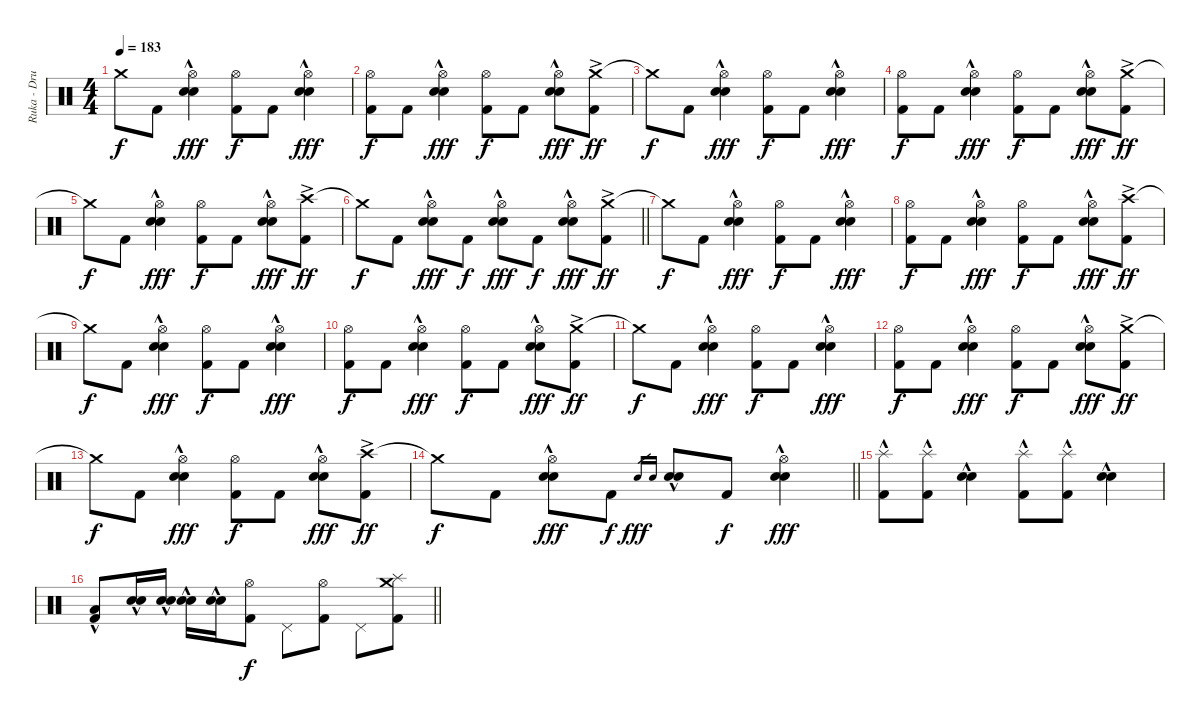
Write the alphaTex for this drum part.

\track ("Ruka - Drums" "Ruka - Dru") {instrument percussion}
\staff {score}
\articulation defaults
\ts (4 4)
\tempo 183
\clef neutral
\ks c "Crash medium (hit)"{t}.8{dy f} "Kick (hit) 2".8
("Hi-Hat (open)" "Electric Snare (hit)"{hac} "Snare (hit) 2"{hac}).4{dy fff} ("Hi-Hat (open)" "Kick (hit) 2").8{dy f} "Kick (hit) 2".8 ("Hi-Hat (open)" "Electric Snare (hit)"{hac} "Snare (hit) 2"{hac}).4{dy fff} |
("Hi-Hat (open)" "Kick (hit) 2").8{dy f} "Kick (hit) 2".8 ("Hi-Hat (open)" "Electric Snare (hit)"{hac} "Snare (hit) 2"{hac}).4{dy fff} ("Hi-Hat (open)" "Kick (hit) 2").8{dy f} "Kick (hit) 2".8 ("Hi-Hat (open)" "Electric Snare (hit)"{hac} "Snare (hit) 2"{hac}).8{dy fff} ("Crash medium (hit)"{ac} "Kick (hit) 2").8{dy ff} |
"Crash medium (hit)"{t}.8{dy f} "Kick (hit) 2".8 ("Hi-Hat (open)" "Electric Snare (hit)"{hac} "Snare (hit) 2"{hac}).4{dy fff} ("Hi-Hat (open)" "Kick (hit) 2").8{dy f} "Kick (hit) 2".8 ("Hi-Hat (open)" "Electric Snare (hit)"{hac} "Snare (hit) 2"{hac}).4{dy fff} |
("Hi-Hat (open)" "Kick (hit) 2").8{dy f} "Kick (hit) 2".8 ("Hi-Hat (open)" "Electric Snare (hit)"{hac} "Snare (hit) 2"{hac}).4{dy fff} ("Hi-Hat (open)" "Kick (hit) 2").8{dy f} "Kick (hit) 2".8 ("Hi-Hat (open)" "Electric Snare (hit)"{hac} "Snare (hit) 2"{hac}).8{dy fff} ("Crash medium (hit)"{ac} "Kick (hit) 2").8{dy ff} |
"Crash medium (hit)"{t}.8{dy f} "Kick (hit) 2".8 ("Hi-Hat (open)" "Electric Snare (hit)"{hac} "Snare (hit) 2"{hac}).4{dy fff} ("Hi-Hat (open)" "Kick (hit) 2").8{dy f} "Kick (hit) 2".8 ("Hi-Hat (open)" "Electric Snare (hit)"{hac} "Snare (hit) 2"{hac}).8{dy fff} ("Crash high (hit)"{ac} "Kick (hit) 2").8{dy ff} |
\barLineRight lightlight "Crash medium (hit)"{t}.8{dy f} "Kick (hit) 2".8
("Hi-Hat (open)" "Electric Snare (hit)"{hac} "Snare (hit) 2"{hac}).8{dy fff} "Kick (hit) 2".8{dy f} ("Hi-Hat (open)" "Electric Snare (hit)"{hac} "Snare (hit) 2"{hac}).8{dy fff} "Kick (hit) 2".8{dy f} ("Hi-Hat (open)" "Electric Snare (hit)"{hac} "Snare (hit) 2"{hac}).8{dy fff} ("Crash medium (hit)"{ac} "Kick (hit) 2").8{dy ff} |
\section ("" "")
"Crash medium (hit)"{t}.8{dy f} "Kick (hit) 2".8 ("Hi-Hat (open)" "Electric Snare (hit)"{hac} "Snare (hit) 2"{hac}).4{dy fff} ("Hi-Hat (open)" "Kick (hit) 2").8{dy f} "Kick (hit) 2".8 ("Hi-Hat (open)" "Electric Snare (hit)"{hac} "Snare (hit) 2"{hac}).4{dy fff} |
("Hi-Hat (open)" "Kick (hit) 2").8{dy f} "Kick (hit) 2".8 ("Hi-Hat (open)" "Electric Snare (hit)"{hac} "Snare (hit) 2"{hac}).4{dy fff} ("Hi-Hat (open)" "Kick (hit) 2").8{dy f} "Kick (hit) 2".8 ("Hi-Hat (open)" "Electric Snare (hit)"{hac} "Snare (hit) 2"{hac}).8{dy fff} ("Crash high (hit)"{ac} "Kick (hit) 2").8{dy ff} |
"Crash medium (hit)"{t}.8{dy f} "Kick (hit) 2".8 ("Hi-Hat (open)" "Electric Snare (hit)"{hac} "Snare (hit) 2"{hac}).4{dy fff} ("Hi-Hat (open)" "Kick (hit) 2").8{dy f} "Kick (hit) 2".8 ("Hi-Hat (open)" "Electric Snare (hit)"{hac} "Snare (hit) 2"{hac}).4{dy fff} |
("Hi-Hat (open)" "Kick (hit) 2").8{dy f} "Kick (hit) 2".8 ("Hi-Hat (open)" "Electric Snare (hit)"{hac} "Snare (hit) 2"{hac}).4{dy fff} ("Hi-Hat (open)" "Kick (hit) 2").8{dy f} "Kick (hit) 2".8 ("Hi-Hat (open)" "Electric Snare (hit)"{hac} "Snare (hit) 2"{hac}).8{dy fff} ("Crash medium (hit)"{ac} "Kick (hit) 2").8{dy ff} |
"Crash medium (hit)"{t}.8{dy f} "Kick (hit) 2".8 ("Hi-Hat (open)" "Electric Snare (hit)"{hac} "Snare (hit) 2"{hac}).4{dy fff} ("Hi-Hat (open)" "Kick (hit) 2").8{dy f} "Kick (hit) 2".8 ("Hi-Hat (open)" "Electric Snare (hit)"{hac} "Snare (hit) 2"{hac}).4{dy fff} |
("Hi-Hat (open)" "Kick (hit) 2").8{dy f} "Kick (hit) 2".8 ("Hi-Hat (open)" "Electric Snare (hit)"{hac} "Snare (hit) 2"{hac}).4{dy fff} ("Hi-Hat (open)" "Kick (hit) 2").8{dy f} "Kick (hit) 2".8 ("Hi-Hat (open)" "Electric Snare (hit)"{hac} "Snare (hit) 2"{hac}).8{dy fff} ("Crash medium (hit)"{ac} "Kick (hit) 2").8{dy ff} |
"Crash medium (hit)"{t}.8{dy f} "Kick (hit) 2".8 ("Hi-Hat (open)" "Electric Snare (hit)"{hac} "Snare (hit) 2"{hac}).4{dy fff} ("Hi-Hat (open)" "Kick (hit) 2").8{dy f} "Kick (hit) 2".8 ("Hi-Hat (open)" "Electric Snare (hit)"{hac} "Snare (hit) 2"{hac}).8{dy fff} ("Crash high (hit)"{ac} "Kick (hit) 2").8{dy ff} |
\barLineRight lightlight "Crash medium (hit)"{t}.8{dy f} "Kick (hit) 2".8
("Hi-Hat (open)" "Electric Snare (hit)"{hac} "Snare (hit) 2"{hac}).8{dy fff} "Kick (hit) 2".8{dy f} "Electric Snare (hit)".16{gr dy fff} "Snare (hit) 2".16{gr} ("Electric Snare (hit)"{hac} "Snare (hit) 2"{hac}).8 "Kick (hit) 2".8{dy f} ("Hi-Hat (open)" "Electric Snare (hit)"{hac} "Snare (hit) 2"{hac}).4{dy fff} |
\section ("" "")
("Splash (hit)"{hac} "Kick (hit) 2").8 ("Splash (hit)"{hac} "Kick (hit) 2").8 ("Electric Snare (hit)" "Snare (hit) 2"{hac}).4 ("Splash (hit)"{hac} "Kick (hit) 2").8 ("Splash (hit)"{hac} "Kick (hit) 2").8 ("Electric Snare (hit)" "Snare (hit) 2"{hac}).4 |
\barLineRight lightlight
("Low Tom (hit)"{hac} "Kick (hit) 2").8 ("Electric Snare (hit)"{hac} "Snare (hit) 2"{hac}).16 ("Electric Snare (hit)"{hac} "Snare (hit) 2"{hac}).16 ("Electric Snare (hit)"{hac} "Snare (hit) 2"{hac}).16 ("Electric Snare (hit)"{hac} "Snare (hit) 2"{hac}).16 ("Hi-Hat (open)" "Kick (hit) 2").8{dy f} "Pedal Hi-Hat (hit)".8 ("Hi-Hat (open)" "Kick (hit) 2").8 "Pedal Hi-Hat (hit)".8 ("Splash (hit)" "Crash medium (hit)" "Kick (hit) 2").8
